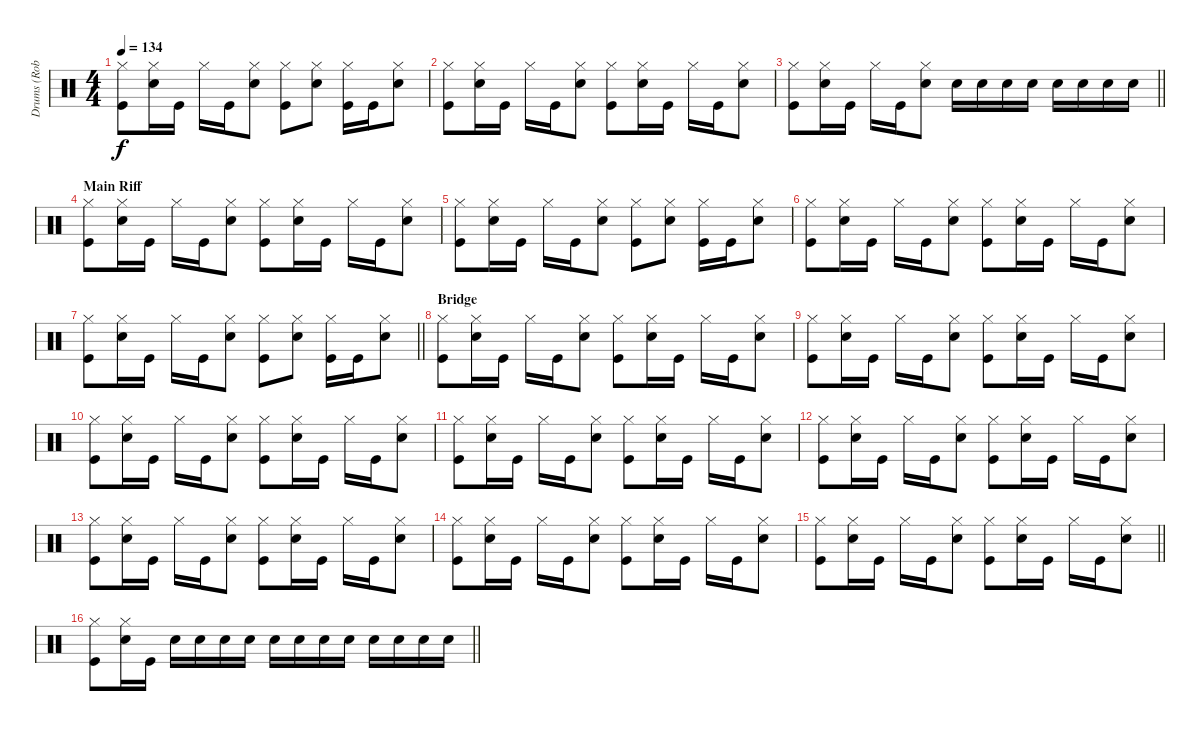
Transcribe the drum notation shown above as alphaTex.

\track ("Drums (Rob Affuso)" "Drums (Rob") {instrument percussion}
\staff {score}
\articulation defaults
\ts (4 4)
\tempo 134
\clef neutral
\ks c
("Hi-Hat (closed)" "Kick (hit)").8{dy f} ("Hi-Hat (closed)" "Snare (hit) 2").16 "Kick (hit)".16 "Hi-Hat (closed)".16 "Kick (hit)".16 ("Hi-Hat (closed)" "Snare (hit) 2").8 ("Hi-Hat (closed)" "Kick (hit)").8 ("Hi-Hat (closed)" "Snare (hit) 2").8 ("Hi-Hat (closed)" "Kick (hit)").16 "Kick (hit)".16 ("Hi-Hat (closed)" "Snare (hit) 2").8 |
("Hi-Hat (closed)" "Kick (hit)").8 ("Hi-Hat (closed)" "Snare (hit) 2").16 "Kick (hit)".16 "Hi-Hat (closed)".16 "Kick (hit)".16 ("Hi-Hat (closed)" "Snare (hit) 2").8 ("Hi-Hat (closed)" "Kick (hit)").8 ("Hi-Hat (closed)" "Snare (hit) 2").16 "Kick (hit)".16 "Hi-Hat (closed)".16 "Kick (hit)".16 ("Hi-Hat (closed)" "Snare (hit) 2").8 |
\barLineRight lightlight
("Hi-Hat (closed)" "Kick (hit)").8 ("Hi-Hat (closed)" "Snare (hit) 2").16 "Kick (hit)".16 "Hi-Hat (closed)".16 "Kick (hit)".16 ("Hi-Hat (closed)" "Snare (hit) 2").8 "Snare (hit) 2".16 "Snare (hit) 2".16 "Snare (hit) 2".16 "Snare (hit) 2".16 "Snare (hit) 2".16 "Snare (hit) 2".16 "Snare (hit) 2".16 "Snare (hit) 2".16 |
\section ("" "Main Riff")
("Hi-Hat (closed)" "Kick (hit)").8 ("Hi-Hat (closed)" "Snare (hit) 2").16 "Kick (hit)".16 "Hi-Hat (closed)".16 "Kick (hit)".16 ("Hi-Hat (closed)" "Snare (hit) 2").8 ("Hi-Hat (closed)" "Kick (hit)").8 ("Hi-Hat (closed)" "Snare (hit) 2").16 "Kick (hit)".16 "Hi-Hat (closed)".16 "Kick (hit)".16 ("Hi-Hat (closed)" "Snare (hit) 2").8 |
("Hi-Hat (closed)" "Kick (hit)").8 ("Hi-Hat (closed)" "Snare (hit) 2").16 "Kick (hit)".16 "Hi-Hat (closed)".16 "Kick (hit)".16 ("Hi-Hat (closed)" "Snare (hit) 2").8 ("Hi-Hat (closed)" "Kick (hit)").8 ("Hi-Hat (closed)" "Snare (hit) 2").8 ("Hi-Hat (closed)" "Kick (hit)").16 "Kick (hit)".16 ("Hi-Hat (closed)" "Snare (hit) 2").8 |
("Hi-Hat (closed)" "Kick (hit)").8 ("Hi-Hat (closed)" "Snare (hit) 2").16 "Kick (hit)".16 "Hi-Hat (closed)".16 "Kick (hit)".16 ("Hi-Hat (closed)" "Snare (hit) 2").8 ("Hi-Hat (closed)" "Kick (hit)").8 ("Hi-Hat (closed)" "Snare (hit) 2").16 "Kick (hit)".16 "Hi-Hat (closed)".16 "Kick (hit)".16 ("Hi-Hat (closed)" "Snare (hit) 2").8 |
\barLineRight lightlight
("Hi-Hat (closed)" "Kick (hit)").8 ("Hi-Hat (closed)" "Snare (hit) 2").16 "Kick (hit)".16 "Hi-Hat (closed)".16 "Kick (hit)".16 ("Hi-Hat (closed)" "Snare (hit) 2").8 ("Hi-Hat (closed)" "Kick (hit)").8 ("Hi-Hat (closed)" "Snare (hit) 2").8 ("Hi-Hat (closed)" "Kick (hit)").16 "Kick (hit)".16 ("Hi-Hat (closed)" "Snare (hit) 2").8 |
\section ("" "Bridge")
("Hi-Hat (closed)" "Kick (hit)").8 ("Hi-Hat (closed)" "Snare (hit) 2").16 "Kick (hit)".16 "Hi-Hat (closed)".16 "Kick (hit)".16 ("Hi-Hat (closed)" "Snare (hit) 2").8 ("Hi-Hat (closed)" "Kick (hit)").8 ("Hi-Hat (closed)" "Snare (hit) 2").16 "Kick (hit)".16 "Hi-Hat (closed)".16 "Kick (hit)".16 ("Hi-Hat (closed)" "Snare (hit) 2").8 |
("Hi-Hat (closed)" "Kick (hit)").8 ("Hi-Hat (closed)" "Snare (hit) 2").16 "Kick (hit)".16 "Hi-Hat (closed)".16 "Kick (hit)".16 ("Hi-Hat (closed)" "Snare (hit) 2").8 ("Hi-Hat (closed)" "Kick (hit)").8 ("Hi-Hat (closed)" "Snare (hit) 2").16 "Kick (hit)".16 "Hi-Hat (closed)".16 "Kick (hit)".16 ("Hi-Hat (closed)" "Snare (hit) 2").8 |
("Hi-Hat (closed)" "Kick (hit)").8 ("Hi-Hat (closed)" "Snare (hit) 2").16 "Kick (hit)".16 "Hi-Hat (closed)".16 "Kick (hit)".16 ("Hi-Hat (closed)" "Snare (hit) 2").8 ("Hi-Hat (closed)" "Kick (hit)").8 ("Hi-Hat (closed)" "Snare (hit) 2").16 "Kick (hit)".16 "Hi-Hat (closed)".16 "Kick (hit)".16 ("Hi-Hat (closed)" "Snare (hit) 2").8 |
("Hi-Hat (closed)" "Kick (hit)").8 ("Hi-Hat (closed)" "Snare (hit) 2").16 "Kick (hit)".16 "Hi-Hat (closed)".16 "Kick (hit)".16 ("Hi-Hat (closed)" "Snare (hit) 2").8 ("Hi-Hat (closed)" "Kick (hit)").8 ("Hi-Hat (closed)" "Snare (hit) 2").16 "Kick (hit)".16 "Hi-Hat (closed)".16 "Kick (hit)".16 ("Hi-Hat (closed)" "Snare (hit) 2").8 |
("Hi-Hat (closed)" "Kick (hit)").8 ("Hi-Hat (closed)" "Snare (hit) 2").16 "Kick (hit)".16 "Hi-Hat (closed)".16 "Kick (hit)".16 ("Hi-Hat (closed)" "Snare (hit) 2").8 ("Hi-Hat (closed)" "Kick (hit)").8 ("Hi-Hat (closed)" "Snare (hit) 2").16 "Kick (hit)".16 "Hi-Hat (closed)".16 "Kick (hit)".16 ("Hi-Hat (closed)" "Snare (hit) 2").8 |
("Hi-Hat (closed)" "Kick (hit)").8 ("Hi-Hat (closed)" "Snare (hit) 2").16 "Kick (hit)".16 "Hi-Hat (closed)".16 "Kick (hit)".16 ("Hi-Hat (closed)" "Snare (hit) 2").8 ("Hi-Hat (closed)" "Kick (hit)").8 ("Hi-Hat (closed)" "Snare (hit) 2").16 "Kick (hit)".16 "Hi-Hat (closed)".16 "Kick (hit)".16 ("Hi-Hat (closed)" "Snare (hit) 2").8 |
("Hi-Hat (closed)" "Kick (hit)").8 ("Hi-Hat (closed)" "Snare (hit) 2").16 "Kick (hit)".16 "Hi-Hat (closed)".16 "Kick (hit)".16 ("Hi-Hat (closed)" "Snare (hit) 2").8 ("Hi-Hat (closed)" "Kick (hit)").8 ("Hi-Hat (closed)" "Snare (hit) 2").16 "Kick (hit)".16 "Hi-Hat (closed)".16 "Kick (hit)".16 ("Hi-Hat (closed)" "Snare (hit) 2").8 |
\barLineRight lightlight
("Hi-Hat (closed)" "Kick (hit)").8 ("Hi-Hat (closed)" "Snare (hit) 2").16 "Kick (hit)".16 "Hi-Hat (closed)".16 "Kick (hit)".16 ("Hi-Hat (closed)" "Snare (hit) 2").8 ("Hi-Hat (closed)" "Kick (hit)").8 ("Hi-Hat (closed)" "Snare (hit) 2").16 "Kick (hit)".16 "Hi-Hat (closed)".16 "Kick (hit)".16 ("Hi-Hat (closed)" "Snare (hit) 2").8 |
\barLineRight lightlight
("Hi-Hat (closed)" "Kick (hit)").8 ("Hi-Hat (closed)" "Snare (hit) 2").16 "Kick (hit)".16 "Snare (hit) 2".16 "Snare (hit) 2".16 "Snare (hit) 2".16 "Snare (hit) 2".16 "Snare (hit) 2".16 "Snare (hit) 2".16 "Snare (hit) 2".16 "Snare (hit) 2".16 "Snare (hit) 2".16 "Snare (hit) 2".16 "Snare (hit) 2".16 "Snare (hit) 2".16
